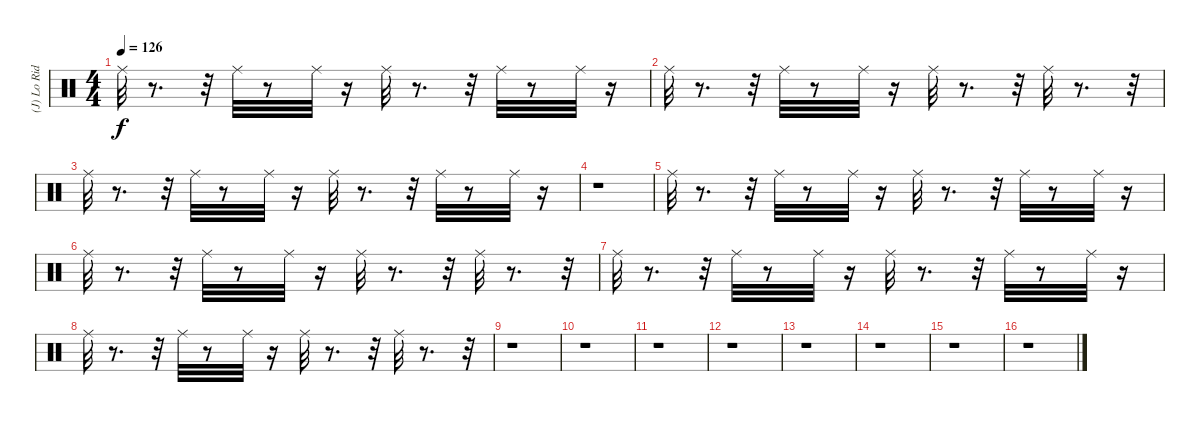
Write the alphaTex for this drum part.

\track ("(J) Lo Ride Cymbal" "(J) Lo Rid") {instrument percussion}
\staff {score}
\articulation defaults
\ts (4 4)
\tempo 126
\clef neutral
\ks c "Ride (middle)".32{dy f}
r.8{d} r.32 "Ride (middle)".32 r.8 "Ride (middle)".32 r.16 "Ride (middle)".32 r.8{d} r.32 "Ride (middle)".32 r.8 "Ride (middle)".32 r.16 |
"Ride (middle)".32 r.8{d} r.32 "Ride (middle)".32 r.8 "Ride (middle)".32 r.16 "Ride (middle)".32 r.8{d} r.32 "Ride (middle)".32 r.8{d} r.32 |
"Ride (middle)".32 r.8{d} r.32 "Ride (middle)".32 r.8 "Ride (middle)".32 r.16 "Ride (middle)".32 r.8{d} r.32 "Ride (middle)".32 r.8 "Ride (middle)".32 r.16 |
r.1 |
"Ride (middle)".32 r.8{d} r.32 "Ride (middle)".32 r.8 "Ride (middle)".32 r.16 "Ride (middle)".32 r.8{d} r.32 "Ride (middle)".32 r.8 "Ride (middle)".32 r.16 |
"Ride (middle)".32 r.8{d} r.32 "Ride (middle)".32 r.8 "Ride (middle)".32 r.16 "Ride (middle)".32 r.8{d} r.32 "Ride (middle)".32 r.8{d} r.32 |
"Ride (middle)".32 r.8{d} r.32 "Ride (middle)".32 r.8 "Ride (middle)".32 r.16 "Ride (middle)".32 r.8{d} r.32 "Ride (middle)".32 r.8 "Ride (middle)".32 r.16 |
"Ride (middle)".32 r.8{d} r.32 "Ride (middle)".32 r.8 "Ride (middle)".32 r.16 "Ride (middle)".32 r.8{d} r.32 "Ride (middle)".32 r.8{d} r.32 |
r.1 |
r.1 |
r.1 |
r.1 |
r.1 |
r.1 |
r.1 |
r.1
